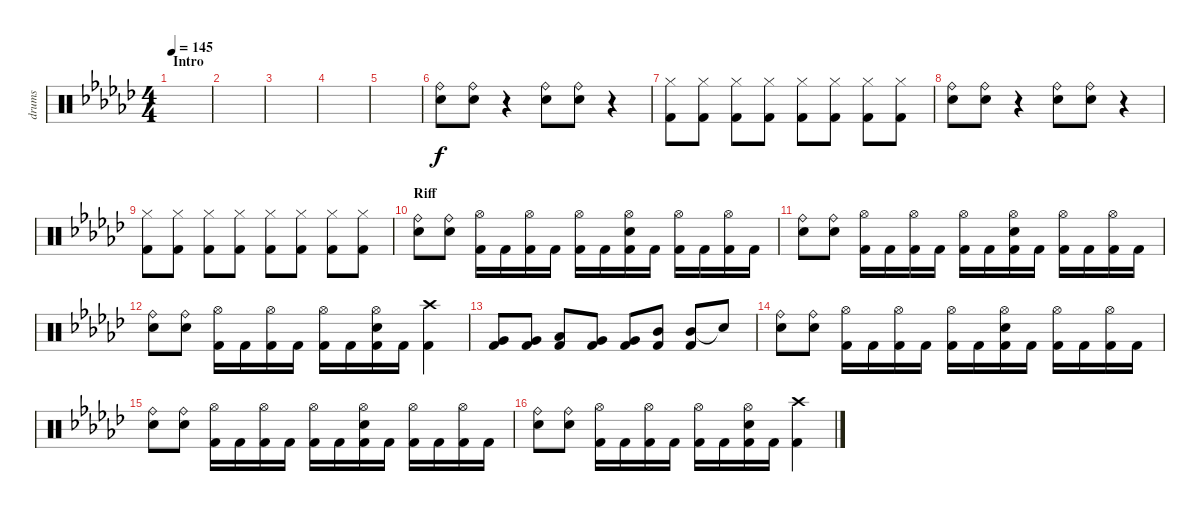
\track ("drums" "drums") {instrument percussion}
\staff {score}
\articulation defaults
\ts (4 4)
\section ("" "Intro")
\tempo 145
\clef neutral
\ks gb
|
|
|
|
|
("Ride (bell)" "Snare (hit) 2").8 ("Ride (bell)" "Snare (hit) 2").8 r.4 ("Ride (bell)" "Snare (hit) 2").8 ("Ride (bell)" "Snare (hit) 2").8 r.4 |
("Hi-Hat (closed)" "Kick (hit) 2").8 ("Hi-Hat (closed)" "Kick (hit) 2").8 ("Hi-Hat (closed)" "Kick (hit) 2").8 ("Hi-Hat (closed)" "Kick (hit) 2").8 ("Hi-Hat (closed)" "Kick (hit) 2").8 ("Hi-Hat (closed)" "Kick (hit) 2").8 ("Hi-Hat (closed)" "Kick (hit) 2").8 ("Hi-Hat (closed)" "Kick (hit) 2").8 |
("Ride (bell)" "Snare (hit) 2").8 ("Ride (bell)" "Snare (hit) 2").8 r.4 ("Ride (bell)" "Snare (hit) 2").8 ("Ride (bell)" "Snare (hit) 2").8 r.4 |
("Hi-Hat (closed)" "Kick (hit) 2").8 ("Hi-Hat (closed)" "Kick (hit) 2").8 ("Hi-Hat (closed)" "Kick (hit) 2").8 ("Hi-Hat (closed)" "Kick (hit) 2").8 ("Hi-Hat (closed)" "Kick (hit) 2").8 ("Hi-Hat (closed)" "Kick (hit) 2").8 ("Hi-Hat (closed)" "Kick (hit) 2").8 ("Hi-Hat (closed)" "Kick (hit) 2").8 |
\section ("" "Riff")
("Ride (bell)" "Snare (hit) 2").8 ("Ride (bell)" "Snare (hit) 2").8 ("Hi-Hat (open)" "Kick (hit) 2").16 "Kick (hit) 2".16 ("Hi-Hat (open)" "Kick (hit) 2").16 "Kick (hit) 2".16 ("Hi-Hat (open)" "Kick (hit) 2").16 "Kick (hit) 2".16 ("Hi-Hat (open)" "Snare (hit) 2" "Kick (hit) 2").16 "Kick (hit) 2".16 ("Hi-Hat (open)" "Kick (hit) 2").16 "Kick (hit) 2".16 ("Hi-Hat (open)" "Kick (hit) 2").16 "Kick (hit) 2".16 |
("Ride (bell)" "Snare (hit) 2").8 ("Ride (bell)" "Snare (hit) 2").8 ("Hi-Hat (open)" "Kick (hit) 2").16 "Kick (hit) 2".16 ("Hi-Hat (open)" "Kick (hit) 2").16 "Kick (hit) 2".16 ("Hi-Hat (open)" "Kick (hit) 2").16 "Kick (hit) 2".16 ("Hi-Hat (open)" "Snare (hit) 2" "Kick (hit) 2").16 "Kick (hit) 2".16 ("Hi-Hat (open)" "Kick (hit) 2").16 "Kick (hit) 2".16 ("Hi-Hat (open)" "Kick (hit) 2").16 "Kick (hit) 2".16 |
("Ride (bell)" "Snare (hit) 2").8 ("Ride (bell)" "Snare (hit) 2").8 ("Hi-Hat (open)" "Kick (hit) 2").16 "Kick (hit) 2".16 ("Hi-Hat (open)" "Kick (hit) 2").16 "Kick (hit) 2".16 ("Hi-Hat (open)" "Kick (hit) 2").16 "Kick (hit) 2".16 ("Hi-Hat (open)" "Snare (hit) 2" "Kick (hit) 2").16 "Kick (hit) 2".16 ("Crash high (hit)" "Kick (hit) 2").4 |
("Very Low Tom (hit)" "Kick (hit) 2").8 ("Very Low Tom (hit)" "Kick (hit) 2").8 ("Low Tom (hit)" "Kick (hit) 2").8 ("Very Low Tom (hit)" "Kick (hit) 2").8 ("Very Low Tom (hit)" "Kick (hit) 2").8 ("Mid Tom (hit)" "Kick (hit) 2").8 ("Mid Tom (hit)" "Kick (hit) 2").8 "Snare (hit)"{t}.8 |
("Ride (bell)" "Snare (hit) 2").8 ("Ride (bell)" "Snare (hit) 2").8 ("Hi-Hat (open)" "Kick (hit) 2").16 "Kick (hit) 2".16 ("Hi-Hat (open)" "Kick (hit) 2").16 "Kick (hit) 2".16 ("Hi-Hat (open)" "Kick (hit) 2").16 "Kick (hit) 2".16 ("Hi-Hat (open)" "Snare (hit) 2" "Kick (hit) 2").16 "Kick (hit) 2".16 ("Hi-Hat (open)" "Kick (hit) 2").16 "Kick (hit) 2".16 ("Hi-Hat (open)" "Kick (hit) 2").16 "Kick (hit) 2".16 |
("Ride (bell)" "Snare (hit) 2").8 ("Ride (bell)" "Snare (hit) 2").8 ("Hi-Hat (open)" "Kick (hit) 2").16 "Kick (hit) 2".16 ("Hi-Hat (open)" "Kick (hit) 2").16 "Kick (hit) 2".16 ("Hi-Hat (open)" "Kick (hit) 2").16 "Kick (hit) 2".16 ("Hi-Hat (open)" "Snare (hit) 2" "Kick (hit) 2").16 "Kick (hit) 2".16 ("Hi-Hat (open)" "Kick (hit) 2").16 "Kick (hit) 2".16 ("Hi-Hat (open)" "Kick (hit) 2").16 "Kick (hit) 2".16 |
("Ride (bell)" "Snare (hit) 2").8 ("Ride (bell)" "Snare (hit) 2").8 ("Hi-Hat (open)" "Kick (hit) 2").16 "Kick (hit) 2".16 ("Hi-Hat (open)" "Kick (hit) 2").16 "Kick (hit) 2".16 ("Hi-Hat (open)" "Kick (hit) 2").16 "Kick (hit) 2".16 ("Hi-Hat (open)" "Snare (hit) 2" "Kick (hit) 2").16 "Kick (hit) 2".16 ("Crash high (hit)" "Kick (hit) 2").4
